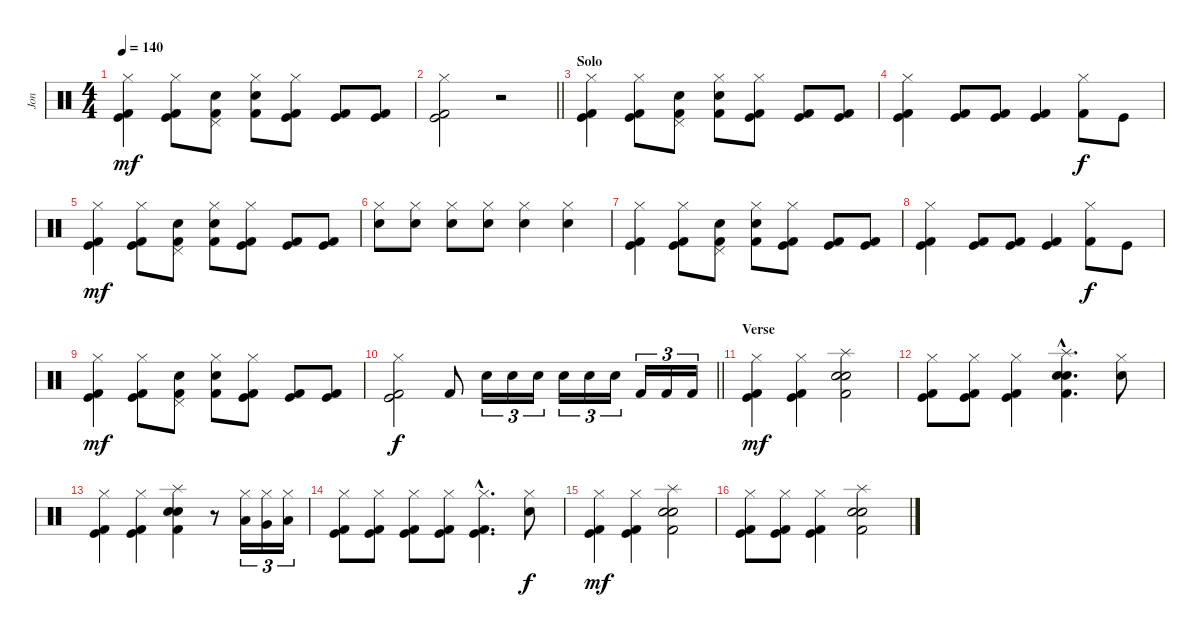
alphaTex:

\track ("Jon" "Jon") {instrument percussion}
\staff {score}
\articulation defaults
\ts (4 4)
\tempo 140
\clef neutral
\ks c
("Kick (hit)" "Kick (hit) 2" "Hi-Hat (closed)").4{dy mf} ("Kick (hit)" "Kick (hit) 2" "Hi-Hat (closed)").8 ("Snare (hit) 2" "Kick (hit) 2" "Pedal Hi-Hat (hit)").8 ("Electric Snare (hit)" "Kick (hit) 2" "Hi-Hat (closed)").8 ("Kick (hit)" "Kick (hit) 2" "Hi-Hat (closed)").8 ("Kick (hit)" "Kick (hit) 2").8 ("Kick (hit)" "Kick (hit) 2").8 |
\barLineRight lightlight
("Kick (hit)" "Kick (hit) 2" "Hi-Hat (closed)").2 r.2 |
\section ("" "Solo")
("Kick (hit)" "Kick (hit) 2" "Hi-Hat (closed)").4 ("Kick (hit)" "Kick (hit) 2" "Hi-Hat (closed)").8 ("Snare (hit) 2" "Kick (hit) 2" "Pedal Hi-Hat (hit)").8 ("Electric Snare (hit)" "Kick (hit) 2" "Hi-Hat (closed)").8 ("Kick (hit)" "Kick (hit) 2" "Hi-Hat (closed)").8 ("Kick (hit)" "Kick (hit) 2").8 ("Kick (hit)" "Kick (hit) 2").8 |
("Kick (hit)" "Kick (hit) 2" "Hi-Hat (closed)").4 ("Kick (hit)" "Kick (hit) 2").8 ("Kick (hit)" "Kick (hit) 2").8 ("Kick (hit)" "Kick (hit) 2").4 ("Kick (hit) 2" "Hi-Hat (closed)").8{dy f} "Kick (hit)".8 |
("Kick (hit)" "Kick (hit) 2" "Hi-Hat (closed)").4{dy mf} ("Kick (hit)" "Kick (hit) 2" "Hi-Hat (closed)").8 ("Snare (hit) 2" "Kick (hit) 2" "Pedal Hi-Hat (hit)").8 ("Electric Snare (hit)" "Kick (hit) 2" "Hi-Hat (closed)").8 ("Kick (hit)" "Kick (hit) 2" "Hi-Hat (closed)").8 ("Kick (hit)" "Kick (hit) 2").8 ("Kick (hit)" "Kick (hit) 2").8 |
("Electric Snare (hit)" "Hi-Hat (closed)").8 ("Electric Snare (hit)" "Hi-Hat (closed)").8 ("Electric Snare (hit)" "Hi-Hat (closed)").8 ("Electric Snare (hit)" "Hi-Hat (closed)").8 ("Electric Snare (hit)" "Hi-Hat (closed)").4 ("Electric Snare (hit)" "Hi-Hat (closed)").4 |
("Kick (hit)" "Kick (hit) 2" "Hi-Hat (closed)").4 ("Kick (hit)" "Kick (hit) 2" "Hi-Hat (closed)").8 ("Snare (hit) 2" "Kick (hit) 2" "Pedal Hi-Hat (hit)").8 ("Electric Snare (hit)" "Kick (hit) 2" "Hi-Hat (closed)").8 ("Kick (hit)" "Kick (hit) 2" "Hi-Hat (closed)").8 ("Kick (hit)" "Kick (hit) 2").8 ("Kick (hit)" "Kick (hit) 2").8 |
("Kick (hit)" "Kick (hit) 2" "Hi-Hat (closed)").4 ("Kick (hit)" "Kick (hit) 2").8 ("Kick (hit)" "Kick (hit) 2").8 ("Kick (hit)" "Kick (hit) 2").4 ("Kick (hit) 2" "Hi-Hat (closed)").8{dy f} "Kick (hit)".8 |
("Kick (hit)" "Kick (hit) 2" "Hi-Hat (closed)").4{dy mf} ("Kick (hit)" "Kick (hit) 2" "Hi-Hat (closed)").8 ("Snare (hit) 2" "Kick (hit) 2" "Pedal Hi-Hat (hit)").8 ("Electric Snare (hit)" "Kick (hit) 2" "Hi-Hat (closed)").8 ("Kick (hit)" "Kick (hit) 2" "Hi-Hat (closed)").8 ("Kick (hit)" "Kick (hit) 2").8 ("Kick (hit)" "Kick (hit) 2").8 |
\barLineRight lightlight
("Kick (hit)" "Kick (hit) 2" "Hi-Hat (closed)").2{dy f} "Kick (hit) 2".8 "Electric Snare (hit)".16{tu (3 2)} "Electric Snare (hit)".16{tu (3 2)} "Electric Snare (hit)".16{tu (3 2)} "Snare (hit) 2".16{tu (3 2)} "Snare (hit) 2".16{tu (3 2)} "Snare (hit) 2".16{tu (3 2)} "Kick (hit) 2".16{tu (3 2)} "Kick (hit) 2".16{tu (3 2)} "Kick (hit) 2".16{tu (3 2)} |
\section ("" "Verse")
("Kick (hit)" "Hi-Hat (closed)" "Kick (hit) 2").4{dy mf} ("Kick (hit)" "Hi-Hat (closed)" "Kick (hit) 2").4 ("Electric Snare (hit)" "Electric Snare (hit)" "Splash (hit)" "Kick (hit) 2").2 |
("Kick (hit) 2" "Kick (hit)" "Hi-Hat (closed)").8 ("Kick (hit) 2" "Kick (hit)" "Hi-Hat (closed)").8 ("Kick (hit) 2" "Kick (hit)" "Hi-Hat (closed)").4 ("Electric Snare (hit)"{hac} "Electric Snare (hit)"{hac} "Splash (hit)"{hac} "Kick (hit) 2"{hac}).4{d} ("Electric Snare (hit)" "Hi-Hat (closed)").8 |
("Kick (hit) 2" "Kick (hit)" "Hi-Hat (closed)").4 ("Kick (hit) 2" "Kick (hit)" "Hi-Hat (closed)").4 ("Electric Snare (hit)" "Electric Snare (hit)" "Splash (hit)" "Kick (hit) 2").4 r.8 ("Low Tom (hit)" "Hi-Hat (closed)").16{tu (3 2)} ("Very Low Tom (hit)" "Hi-Hat (closed)").16{tu (3 2)} ("Low Floor Tom (hit)" "Hi-Hat (closed)").16{tu (3 2)} |
("Kick (hit) 2" "Kick (hit)" "Hi-Hat (closed)").8 ("Kick (hit) 2" "Kick (hit)" "Hi-Hat (closed)").8 ("Kick (hit) 2" "Kick (hit)" "Hi-Hat (closed)").8 ("Kick (hit) 2" "Kick (hit)" "Hi-Hat (closed)").8 ("Kick (hit) 2"{hac} "Kick (hit)"{hac} "Hi-Hat (closed)"{hac}).4{d} ("Electric Snare (hit)" "Hi-Hat (closed)").8{dy f} |
("Kick (hit) 2" "Kick (hit)" "Hi-Hat (closed)").4{dy mf} ("Kick (hit) 2" "Kick (hit)" "Hi-Hat (closed)").4 ("Electric Snare (hit)" "Electric Snare (hit)" "Splash (hit)" "Kick (hit) 2").2 |
("Kick (hit) 2" "Kick (hit)" "Hi-Hat (closed)").8 ("Kick (hit) 2" "Kick (hit)" "Hi-Hat (closed)").8 ("Kick (hit) 2" "Kick (hit)" "Hi-Hat (closed)").4 ("Electric Snare (hit)" "Electric Snare (hit)" "Splash (hit)" "Kick (hit) 2").2
